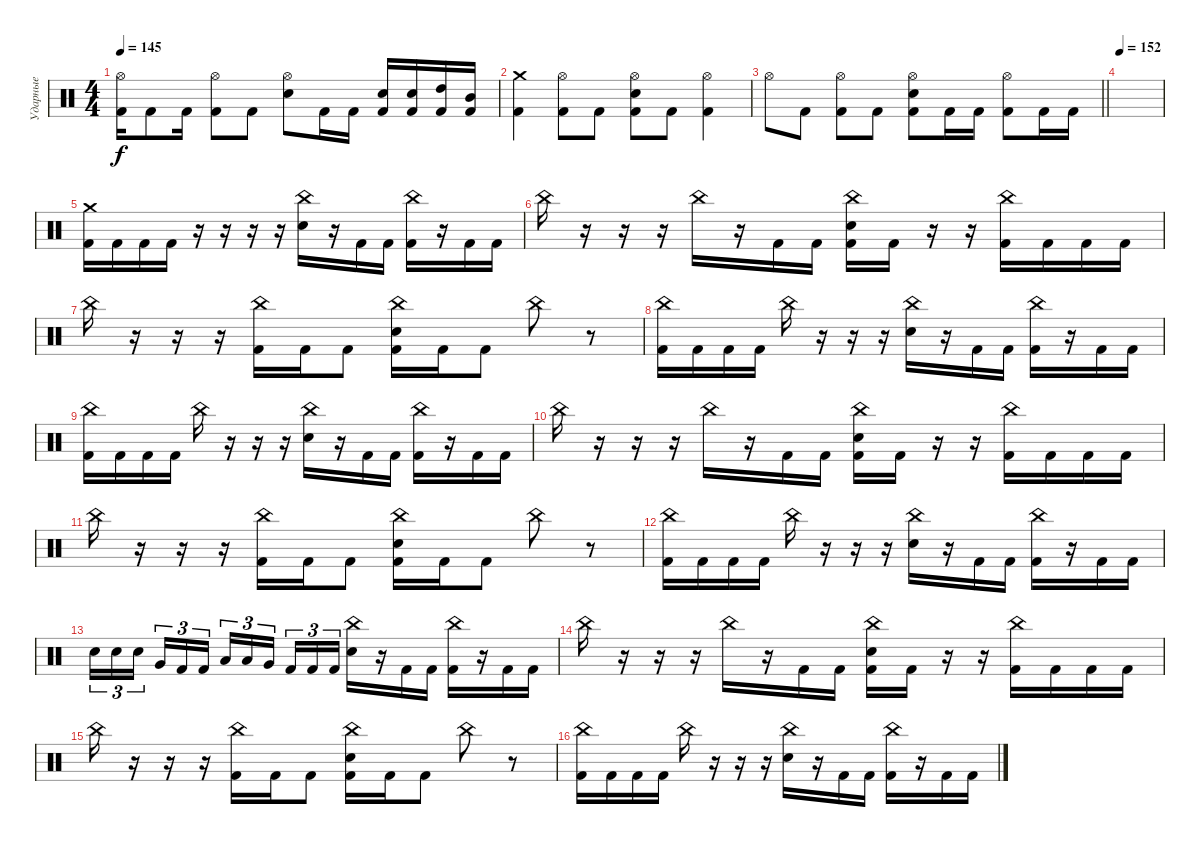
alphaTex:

\track ("Ударные" "Ударные") {instrument percussion}
\staff {score}
\articulation defaults
\ts (4 4)
\tempo 145
\clef neutral
\ks c
("Hi-Hat (open)" "Kick (hit) 2").16{dy f} "Kick (hit) 2".8 "Kick (hit) 2".16 ("Hi-Hat (open)" "Kick (hit) 2").8 "Kick (hit) 2".8 ("Hi-Hat (open)" "Electric Snare (hit)").8 "Kick (hit) 2".16 "Kick (hit) 2".16 ("Electric Snare (hit)" "Kick (hit) 2").16 ("Electric Snare (hit)" "Kick (hit) 2").16 ("High Tom (hit)" "Kick (hit) 2").16 ("Mid Tom (hit)" "Kick (hit) 2").16 |
("Crash medium (hit)" "Kick (hit) 2").4 ("Hi-Hat (open)" "Kick (hit) 2").8 "Kick (hit) 2".8 ("Hi-Hat (open)" "Electric Snare (hit)" "Kick (hit) 2").8 "Kick (hit) 2".8 ("Hi-Hat (open)" "Kick (hit) 2").4 |
\barLineRight lightlight "Hi-Hat (open)".8 "Kick (hit) 2".8
("Hi-Hat (open)" "Kick (hit) 2").8 "Kick (hit) 2".8 ("Hi-Hat (open)" "Electric Snare (hit)" "Kick (hit) 2").8 "Kick (hit) 2".16 "Kick (hit) 2".16 ("Hi-Hat (open)" "Kick (hit) 2").8 "Kick (hit) 2".16 "Kick (hit) 2".16 |
\tempo 152
|
("Crash medium (hit)" "Kick (hit) 2").16 "Kick (hit) 2".16 "Kick (hit) 2".16 "Kick (hit) 2".16 r.16 r.16 r.16 r.16 ("China (hit)" "Electric Snare (hit)").16 r.16 "Kick (hit) 2".16 "Kick (hit) 2".16 ("China (hit)" "Kick (hit) 2").16 r.16 "Kick (hit) 2".16 "Kick (hit) 2".16 |
"China (hit)".16 r.16 r.16 r.16 "China (hit)".16 r.16 "Kick (hit) 2".16 "Kick (hit) 2".16 ("China (hit)" "Electric Snare (hit)" "Kick (hit) 2").16 "Kick (hit) 2".16 r.16 r.16 ("China (hit)" "Kick (hit) 2").16 "Kick (hit) 2".16 "Kick (hit) 2".16 "Kick (hit) 2".16 |
"China (hit)".16 r.16 r.16 r.16 ("China (hit)" "Kick (hit) 2").16 "Kick (hit) 2".16 "Kick (hit) 2".8 ("China (hit)" "Electric Snare (hit)" "Kick (hit) 2").16 "Kick (hit) 2".16 "Kick (hit) 2".8 "China (hit)".8 r.8 |
("China (hit)" "Kick (hit) 2").16 "Kick (hit) 2".16 "Kick (hit) 2".16 "Kick (hit) 2".16 "China (hit)".16 r.16 r.16 r.16 ("China (hit)" "Electric Snare (hit)").16 r.16 "Kick (hit) 2".16 "Kick (hit) 2".16 ("China (hit)" "Kick (hit) 2").16 r.16 "Kick (hit) 2".16 "Kick (hit) 2".16 |
("China (hit)" "Kick (hit) 2").16 "Kick (hit) 2".16 "Kick (hit) 2".16 "Kick (hit) 2".16 "China (hit)".16 r.16 r.16 r.16 ("China (hit)" "Electric Snare (hit)").16 r.16 "Kick (hit) 2".16 "Kick (hit) 2".16 ("China (hit)" "Kick (hit) 2").16 r.16 "Kick (hit) 2".16 "Kick (hit) 2".16 |
"China (hit)".16 r.16 r.16 r.16 "China (hit)".16 r.16 "Kick (hit) 2".16 "Kick (hit) 2".16 ("China (hit)" "Electric Snare (hit)" "Kick (hit) 2").16 "Kick (hit) 2".16 r.16 r.16 ("China (hit)" "Kick (hit) 2").16 "Kick (hit) 2".16 "Kick (hit) 2".16 "Kick (hit) 2".16 |
"China (hit)".16 r.16 r.16 r.16 ("China (hit)" "Kick (hit) 2").16 "Kick (hit) 2".16 "Kick (hit) 2".8 ("China (hit)" "Electric Snare (hit)" "Kick (hit) 2").16 "Kick (hit) 2".16 "Kick (hit) 2".8 "China (hit)".8 r.8 |
("China (hit)" "Kick (hit) 2").16 "Kick (hit) 2".16 "Kick (hit) 2".16 "Kick (hit) 2".16 "China (hit)".16 r.16 r.16 r.16 ("China (hit)" "Electric Snare (hit)").16 r.16 "Kick (hit) 2".16 "Kick (hit) 2".16 ("China (hit)" "Kick (hit) 2").16 r.16 "Kick (hit) 2".16 "Kick (hit) 2".16 |
"Electric Snare (hit)".16{tu (3 2)} "Electric Snare (hit)".16{tu (3 2)} "Electric Snare (hit)".16{tu (3 2) beam splitsecondary} "Very Low Tom (hit)".16{tu (3 2)} "Kick (hit) 2".16{tu (3 2)} "Kick (hit) 2".16{tu (3 2)} "Low Tom (hit)".16{tu (3 2)} "Low Tom (hit)".16{tu (3 2)} "Very Low Tom (hit)".16{tu (3 2) beam splitsecondary} "Kick (hit) 2".16{tu (3 2)} "Kick (hit) 2".16{tu (3 2)} "Kick (hit) 2".16{tu (3 2)} ("China (hit)" "Electric Snare (hit)").16 r.16 "Kick (hit) 2".16 "Kick (hit) 2".16 ("China (hit)" "Kick (hit) 2").16 r.16 "Kick (hit) 2".16 "Kick (hit) 2".16 |
"China (hit)".16 r.16 r.16 r.16 "China (hit)".16 r.16 "Kick (hit) 2".16 "Kick (hit) 2".16 ("China (hit)" "Electric Snare (hit)" "Kick (hit) 2").16 "Kick (hit) 2".16 r.16 r.16 ("China (hit)" "Kick (hit) 2").16 "Kick (hit) 2".16 "Kick (hit) 2".16 "Kick (hit) 2".16 |
"China (hit)".16 r.16 r.16 r.16 ("China (hit)" "Kick (hit) 2").16 "Kick (hit) 2".16 "Kick (hit) 2".8 ("China (hit)" "Electric Snare (hit)" "Kick (hit) 2").16 "Kick (hit) 2".16 "Kick (hit) 2".8 "China (hit)".8 r.8 |
("China (hit)" "Kick (hit) 2").16 "Kick (hit) 2".16 "Kick (hit) 2".16 "Kick (hit) 2".16 "China (hit)".16 r.16 r.16 r.16 ("China (hit)" "Electric Snare (hit)").16 r.16 "Kick (hit) 2".16 "Kick (hit) 2".16 ("China (hit)" "Kick (hit) 2").16 r.16 "Kick (hit) 2".16 "Kick (hit) 2".16
